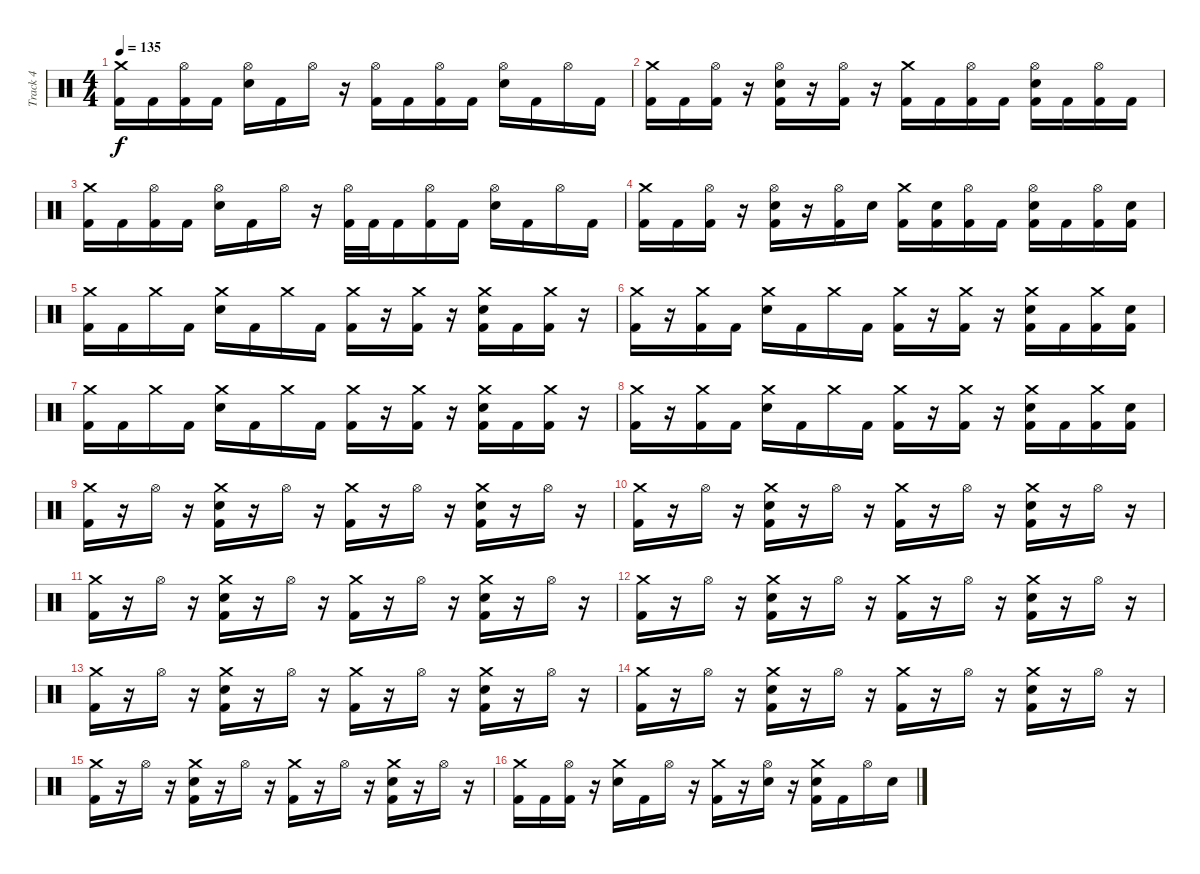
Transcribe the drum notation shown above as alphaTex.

\track ("Track 4" "Track 4") {instrument percussion}
\staff {score}
\articulation defaults
\ts (4 4)
\tempo 135
\clef neutral
\ks c
("Crash medium (hit)" "Kick (hit) 2").16{dy f} "Kick (hit) 2".16 ("Hi-Hat (open)" "Kick (hit) 2").16 "Kick (hit) 2".16 ("Hi-Hat (open)" "Electric Snare (hit)").16 "Kick (hit) 2".16 "Hi-Hat (open)".16 r.16 ("Hi-Hat (open)" "Kick (hit) 2").16 "Kick (hit) 2".16 ("Hi-Hat (open)" "Kick (hit) 2").16 "Kick (hit) 2".16 ("Hi-Hat (open)" "Electric Snare (hit)").16 "Kick (hit) 2".16 "Hi-Hat (open)".16 "Kick (hit) 2".16 |
("Crash medium (hit)" "Kick (hit) 2").16 "Kick (hit) 2".16 ("Hi-Hat (open)" "Kick (hit) 2").16 r.16 ("Hi-Hat (open)" "Electric Snare (hit)" "Kick (hit) 2").16 r.16 ("Hi-Hat (open)" "Kick (hit) 2").16 r.16 ("Crash medium (hit)" "Kick (hit) 2").16 "Kick (hit) 2".16 ("Hi-Hat (open)" "Kick (hit) 2").16 "Kick (hit) 2".16 ("Hi-Hat (open)" "Electric Snare (hit)" "Kick (hit) 2").16 "Kick (hit) 2".16 ("Hi-Hat (open)" "Kick (hit) 2").16 "Kick (hit) 2".16 |
("Crash medium (hit)" "Kick (hit) 2").16 "Kick (hit) 2".16 ("Hi-Hat (open)" "Kick (hit) 2").16 "Kick (hit) 2".16 ("Hi-Hat (open)" "Electric Snare (hit)").16 "Kick (hit) 2".16 "Hi-Hat (open)".16 r.16 ("Hi-Hat (open)" "Kick (hit) 2").32 "Kick (hit) 2".32 "Kick (hit) 2".16 ("Hi-Hat (open)" "Kick (hit) 2").16 "Kick (hit) 2".16 ("Hi-Hat (open)" "Electric Snare (hit)").16 "Kick (hit) 2".16 "Hi-Hat (open)".16 "Kick (hit) 2".16 |
("Crash medium (hit)" "Kick (hit) 2").16 "Kick (hit) 2".16 ("Hi-Hat (open)" "Kick (hit) 2").16 r.16 ("Hi-Hat (open)" "Electric Snare (hit)" "Kick (hit) 2").16 r.16 ("Hi-Hat (open)" "Kick (hit) 2").16 "Electric Snare (hit)".16 ("Crash medium (hit)" "Kick (hit) 2").16 ("Electric Snare (hit)" "Kick (hit) 2").16 ("Hi-Hat (open)" "Kick (hit) 2").16 "Kick (hit) 2".16 ("Hi-Hat (open)" "Electric Snare (hit)" "Kick (hit) 2").16 "Kick (hit) 2".16 ("Hi-Hat (open)" "Kick (hit) 2").16 ("Electric Snare (hit)" "Kick (hit) 2").16 |
("Crash medium (hit)" "Kick (hit) 2").16 "Kick (hit) 2".16 "Crash medium (hit)".16 "Kick (hit) 2".16 ("Crash medium (hit)" "Electric Snare (hit)").16 "Kick (hit) 2".16 "Crash medium (hit)".16 "Kick (hit) 2".16 ("Crash medium (hit)" "Kick (hit) 2").16 r.16 ("Crash medium (hit)" "Kick (hit) 2").16 r.16 ("Crash medium (hit)" "Electric Snare (hit)" "Kick (hit) 2").16 "Kick (hit) 2".16 ("Crash medium (hit)" "Kick (hit) 2").16 r.16 |
("Crash medium (hit)" "Kick (hit) 2").16 r.16 ("Crash medium (hit)" "Kick (hit) 2").16 "Kick (hit) 2".16 ("Crash medium (hit)" "Electric Snare (hit)").16 "Kick (hit) 2".16 "Crash medium (hit)".16 "Kick (hit) 2".16 ("Crash medium (hit)" "Kick (hit) 2").16 r.16 ("Crash medium (hit)" "Kick (hit) 2").16 r.16 ("Crash medium (hit)" "Electric Snare (hit)" "Kick (hit) 2").16 "Kick (hit) 2".16 ("Crash medium (hit)" "Kick (hit) 2").16 ("Electric Snare (hit)" "Kick (hit) 2").16 |
("Crash medium (hit)" "Kick (hit) 2").16 "Kick (hit) 2".16 "Crash medium (hit)".16 "Kick (hit) 2".16 ("Crash medium (hit)" "Electric Snare (hit)").16 "Kick (hit) 2".16 "Crash medium (hit)".16 "Kick (hit) 2".16 ("Crash medium (hit)" "Kick (hit) 2").16 r.16 ("Crash medium (hit)" "Kick (hit) 2").16 r.16 ("Crash medium (hit)" "Electric Snare (hit)" "Kick (hit) 2").16 "Kick (hit) 2".16 ("Crash medium (hit)" "Kick (hit) 2").16 r.16 |
("Crash medium (hit)" "Kick (hit) 2").16 r.16 ("Crash medium (hit)" "Kick (hit) 2").16 "Kick (hit) 2".16 ("Crash medium (hit)" "Electric Snare (hit)").16 "Kick (hit) 2".16 "Crash medium (hit)".16 "Kick (hit) 2".16 ("Crash medium (hit)" "Kick (hit) 2").16 r.16 ("Crash medium (hit)" "Kick (hit) 2").16 r.16 ("Crash medium (hit)" "Electric Snare (hit)" "Kick (hit) 2").16 "Kick (hit) 2".16 ("Crash medium (hit)" "Kick (hit) 2").16 ("Electric Snare (hit)" "Kick (hit) 2").16 |
("Crash medium (hit)" "Kick (hit) 2").16 r.16 "Hi-Hat (open)".16 r.16 ("Crash medium (hit)" "Electric Snare (hit)" "Kick (hit) 2").16 r.16 "Hi-Hat (open)".16 r.16 ("Crash medium (hit)" "Kick (hit) 2").16 r.16 "Hi-Hat (open)".16 r.16 ("Crash medium (hit)" "Electric Snare (hit)" "Kick (hit) 2").16 r.16 "Hi-Hat (open)".16 r.16 |
("Crash medium (hit)" "Kick (hit) 2").16 r.16 "Hi-Hat (open)".16 r.16 ("Crash medium (hit)" "Electric Snare (hit)" "Kick (hit) 2").16 r.16 "Hi-Hat (open)".16 r.16 ("Crash medium (hit)" "Kick (hit) 2").16 r.16 "Hi-Hat (open)".16 r.16 ("Crash medium (hit)" "Electric Snare (hit)" "Kick (hit) 2").16 r.16 "Hi-Hat (open)".16 r.16 |
("Crash medium (hit)" "Kick (hit) 2").16 r.16 "Hi-Hat (open)".16 r.16 ("Crash medium (hit)" "Electric Snare (hit)" "Kick (hit) 2").16 r.16 "Hi-Hat (open)".16 r.16 ("Crash medium (hit)" "Kick (hit) 2").16 r.16 "Hi-Hat (open)".16 r.16 ("Crash medium (hit)" "Electric Snare (hit)" "Kick (hit) 2").16 r.16 "Hi-Hat (open)".16 r.16 |
("Crash medium (hit)" "Kick (hit) 2").16 r.16 "Hi-Hat (open)".16 r.16 ("Crash medium (hit)" "Electric Snare (hit)" "Kick (hit) 2").16 r.16 "Hi-Hat (open)".16 r.16 ("Crash medium (hit)" "Kick (hit) 2").16 r.16 "Hi-Hat (open)".16 r.16 ("Crash medium (hit)" "Electric Snare (hit)" "Kick (hit) 2").16 r.16 "Hi-Hat (open)".16 r.16 |
("Crash medium (hit)" "Kick (hit) 2").16 r.16 "Hi-Hat (open)".16 r.16 ("Crash medium (hit)" "Electric Snare (hit)" "Kick (hit) 2").16 r.16 "Hi-Hat (open)".16 r.16 ("Crash medium (hit)" "Kick (hit) 2").16 r.16 "Hi-Hat (open)".16 r.16 ("Crash medium (hit)" "Electric Snare (hit)" "Kick (hit) 2").16 r.16 "Hi-Hat (open)".16 r.16 |
("Crash medium (hit)" "Kick (hit) 2").16 r.16 "Hi-Hat (open)".16 r.16 ("Crash medium (hit)" "Electric Snare (hit)" "Kick (hit) 2").16 r.16 "Hi-Hat (open)".16 r.16 ("Crash medium (hit)" "Kick (hit) 2").16 r.16 "Hi-Hat (open)".16 r.16 ("Crash medium (hit)" "Electric Snare (hit)" "Kick (hit) 2").16 r.16 "Hi-Hat (open)".16 r.16 |
("Crash medium (hit)" "Kick (hit) 2").16 r.16 "Hi-Hat (open)".16 r.16 ("Crash medium (hit)" "Electric Snare (hit)" "Kick (hit) 2").16 r.16 "Hi-Hat (open)".16 r.16 ("Crash medium (hit)" "Kick (hit) 2").16 r.16 "Hi-Hat (open)".16 r.16 ("Crash medium (hit)" "Electric Snare (hit)" "Kick (hit) 2").16 r.16 "Hi-Hat (open)".16 r.16 |
("Crash medium (hit)" "Kick (hit) 2").16 "Kick (hit) 2".16 ("Hi-Hat (open)" "Kick (hit) 2").16 r.16 ("Crash medium (hit)" "Electric Snare (hit)").16 "Kick (hit) 2".16 "Hi-Hat (open)".16 r.16 ("Crash medium (hit)" "Kick (hit) 2").16 r.16 ("Hi-Hat (open)" "Electric Snare (hit)").16 r.16 ("Crash medium (hit)" "Electric Snare (hit)" "Kick (hit) 2").16 "Kick (hit) 2".16 "Hi-Hat (open)".16 "Electric Snare (hit)".16
